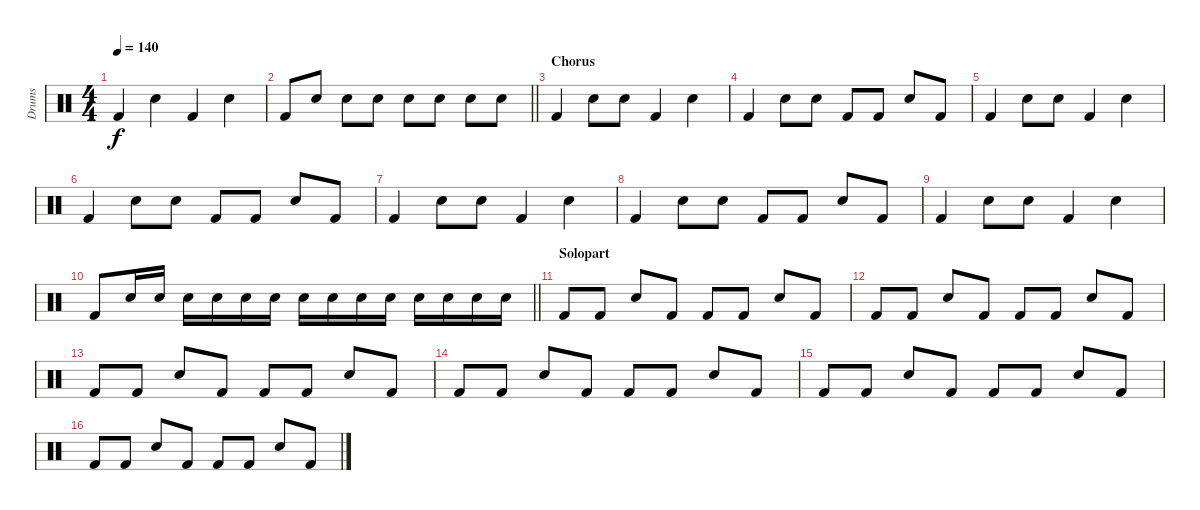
\track ("Drums" "Drums") {instrument percussion}
\staff {score}
\articulation defaults
\ts (4 4)
\tempo 140
\clef neutral
\ks c "Kick (hit) 2".4{dy f} "Snare (hit) 2".4 "Kick (hit) 2".4 "Snare (hit) 2".4
|
\barLineRight lightlight "Kick (hit) 2".8 "Snare (hit) 2".8 "Snare (hit) 2".8 "Snare (hit) 2".8 "Snare (hit) 2".8 "Snare (hit) 2".8 "Snare (hit) 2".8 "Snare (hit) 2".8
|
\section ("" "Chorus")
"Kick (hit) 2".4 "Snare (hit) 2".8 "Snare (hit) 2".8 "Kick (hit) 2".4 "Snare (hit) 2".4 |
"Kick (hit) 2".4 "Snare (hit) 2".8 "Snare (hit) 2".8 "Kick (hit) 2".8 "Kick (hit) 2".8 "Snare (hit) 2".8 "Kick (hit) 2".8 |
"Kick (hit) 2".4 "Snare (hit) 2".8 "Snare (hit) 2".8 "Kick (hit) 2".4 "Snare (hit) 2".4 |
"Kick (hit) 2".4 "Snare (hit) 2".8 "Snare (hit) 2".8 "Kick (hit) 2".8 "Kick (hit) 2".8 "Snare (hit) 2".8 "Kick (hit) 2".8 |
"Kick (hit) 2".4 "Snare (hit) 2".8 "Snare (hit) 2".8 "Kick (hit) 2".4 "Snare (hit) 2".4 |
"Kick (hit) 2".4 "Snare (hit) 2".8 "Snare (hit) 2".8 "Kick (hit) 2".8 "Kick (hit) 2".8 "Snare (hit) 2".8 "Kick (hit) 2".8 |
"Kick (hit) 2".4 "Snare (hit) 2".8 "Snare (hit) 2".8 "Kick (hit) 2".4 "Snare (hit) 2".4 |
\barLineRight lightlight "Kick (hit) 2".8 "Snare (hit) 2".16 "Snare (hit) 2".16 "Snare (hit) 2".16 "Snare (hit) 2".16 "Snare (hit) 2".16 "Snare (hit) 2".16 "Snare (hit) 2".16 "Snare (hit) 2".16 "Snare (hit) 2".16 "Snare (hit) 2".16 "Snare (hit) 2".16 "Snare (hit) 2".16 "Snare (hit) 2".16 "Snare (hit) 2".16
|
\section ("" "Solopart")
"Kick (hit) 2".8 "Kick (hit) 2".8 "Snare (hit) 2".8 "Kick (hit) 2".8 "Kick (hit) 2".8 "Kick (hit) 2".8 "Snare (hit) 2".8 "Kick (hit) 2".8 |
"Kick (hit) 2".8 "Kick (hit) 2".8 "Snare (hit) 2".8 "Kick (hit) 2".8 "Kick (hit) 2".8 "Kick (hit) 2".8 "Snare (hit) 2".8 "Kick (hit) 2".8 |
"Kick (hit) 2".8 "Kick (hit) 2".8 "Snare (hit) 2".8 "Kick (hit) 2".8 "Kick (hit) 2".8 "Kick (hit) 2".8 "Snare (hit) 2".8 "Kick (hit) 2".8 |
"Kick (hit) 2".8 "Kick (hit) 2".8 "Snare (hit) 2".8 "Kick (hit) 2".8 "Kick (hit) 2".8 "Kick (hit) 2".8 "Snare (hit) 2".8 "Kick (hit) 2".8 |
"Kick (hit) 2".8 "Kick (hit) 2".8 "Snare (hit) 2".8 "Kick (hit) 2".8 "Kick (hit) 2".8 "Kick (hit) 2".8 "Snare (hit) 2".8 "Kick (hit) 2".8 |
"Kick (hit) 2".8 "Kick (hit) 2".8 "Snare (hit) 2".8 "Kick (hit) 2".8 "Kick (hit) 2".8 "Kick (hit) 2".8 "Snare (hit) 2".8 "Kick (hit) 2".8
